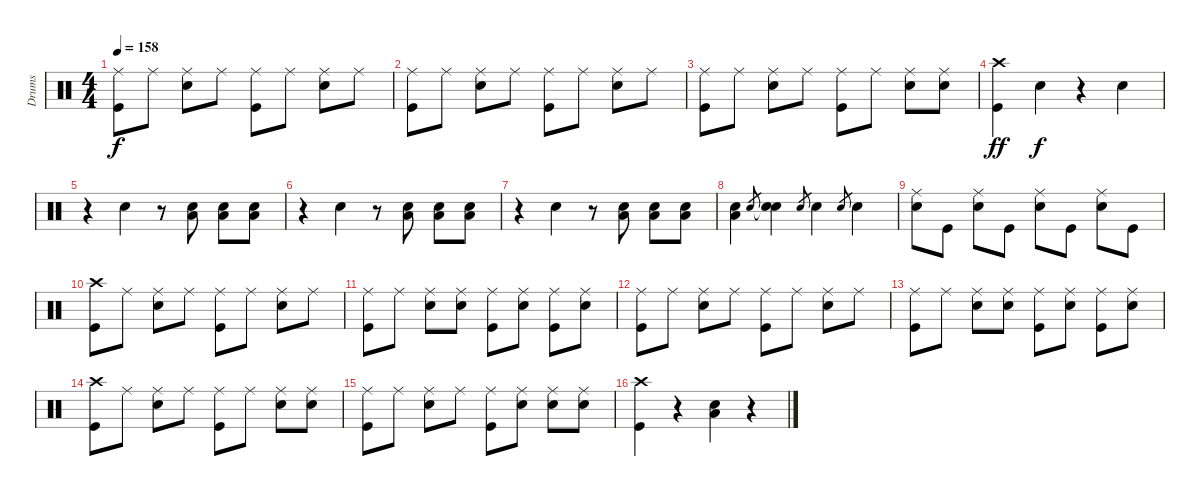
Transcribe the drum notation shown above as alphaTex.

\track ("Drums" "Drums") {instrument percussion}
\staff {score}
\articulation defaults
\ts (4 4)
\tempo 158
\clef neutral
\ks c
("Ride (middle)" "Kick (hit)").8{dy f} "Ride (middle)".8 ("Ride (middle)" "Snare (hit) 2").8 "Ride (middle)".8 ("Ride (middle)" "Kick (hit)").8 "Ride (middle)".8 ("Ride (middle)" "Snare (hit) 2").8 "Ride (middle)".8 |
("Ride (middle)" "Kick (hit)").8 "Ride (middle)".8 ("Ride (middle)" "Snare (hit) 2").8 "Ride (middle)".8 ("Ride (middle)" "Kick (hit)").8 "Ride (middle)".8 ("Ride (middle)" "Snare (hit) 2").8 "Ride (middle)".8 |
("Ride (middle)" "Kick (hit)").8 "Ride (middle)".8 ("Ride (middle)" "Snare (hit) 2").8 "Ride (middle)".8 ("Ride (middle)" "Kick (hit)").8 "Ride (middle)".8 ("Ride (middle)" "Snare (hit) 2").8 ("Ride (middle)" "Snare (hit) 2").8 |
("Crash high (hit)" "Kick (hit)").4{dy ff} "Snare (hit) 2".4{dy f} r.4 "Snare (hit) 2".4 |
r.4 "Snare (hit) 2".4 r.8 ("Snare (hit) 2" "Low Floor Tom (hit)").8 ("Snare (hit) 2" "Low Floor Tom (hit)").8 ("Snare (hit) 2" "Low Floor Tom (hit)").8 |
r.4 "Snare (hit) 2".4 r.8 ("Snare (hit) 2" "Low Floor Tom (hit)").8 ("Snare (hit) 2" "Low Floor Tom (hit)").8 ("Snare (hit) 2" "Low Floor Tom (hit)").8 |
r.4 "Snare (hit) 2".4 r.8 ("Snare (hit) 2" "Low Floor Tom (hit)").8 ("Snare (hit) 2" "Low Floor Tom (hit)").8 ("Snare (hit) 2" "Low Floor Tom (hit)").8 |
("Snare (hit) 2" "Low Floor Tom (hit)").4 "Snare (hit) 2".8{gr} ("Snare (hit)"{t} "Snare (hit) 2").4 "Snare (hit) 2".8{gr} "Snare (hit) 2".4 "Snare (hit) 2".8{gr} "Snare (hit) 2".4 |
("Ride (middle)" "Snare (hit) 2").8 "Kick (hit)".8 ("Ride (middle)" "Snare (hit) 2").8 "Kick (hit)".8 ("Ride (middle)" "Snare (hit) 2").8 "Kick (hit)".8 ("Ride (middle)" "Snare (hit) 2").8 "Kick (hit)".8 |
("Crash high (hit)" "Kick (hit)").8 "Ride (middle)".8 ("Ride (middle)" "Snare (hit) 2").8 "Ride (middle)".8 ("Ride (middle)" "Kick (hit)").8 "Ride (middle)".8 ("Ride (middle)" "Snare (hit) 2").8 "Ride (middle)".8 |
("Ride (middle)" "Kick (hit)").8 "Ride (middle)".8 ("Ride (middle)" "Snare (hit) 2").8 ("Ride (middle)" "Snare (hit) 2").8 ("Ride (middle)" "Kick (hit)").8 ("Ride (middle)" "Snare (hit) 2").8 ("Ride (middle)" "Kick (hit)").8 ("Ride (middle)" "Snare (hit) 2").8 |
("Ride (middle)" "Kick (hit)").8 "Ride (middle)".8 ("Ride (middle)" "Snare (hit) 2").8 "Ride (middle)".8 ("Ride (middle)" "Kick (hit)").8 "Ride (middle)".8 ("Ride (middle)" "Snare (hit) 2").8 "Ride (middle)".8 |
("Ride (middle)" "Kick (hit)").8 "Ride (middle)".8 ("Ride (middle)" "Snare (hit) 2").8 ("Ride (middle)" "Snare (hit) 2").8 ("Ride (middle)" "Kick (hit)").8 ("Ride (middle)" "Snare (hit) 2").8 ("Ride (middle)" "Kick (hit)").8 ("Ride (middle)" "Snare (hit) 2").8 |
("Crash high (hit)" "Kick (hit)").8 "Ride (middle)".8 ("Ride (middle)" "Snare (hit) 2").8 "Ride (middle)".8 ("Ride (middle)" "Kick (hit)").8 "Ride (middle)".8 ("Ride (middle)" "Snare (hit) 2").8 ("Ride (middle)" "Snare (hit) 2").8 |
("Ride (middle)" "Kick (hit)").8 "Ride (middle)".8 ("Ride (middle)" "Snare (hit) 2").8 "Ride (middle)".8 ("Ride (middle)" "Kick (hit)").8 ("Ride (middle)" "Snare (hit) 2").8 ("Ride (middle)" "Snare (hit) 2").8 ("Ride (middle)" "Snare (hit) 2").8 |
("Crash high (hit)" "Kick (hit)").4 r.4 ("Snare (hit) 2" "Low Floor Tom (hit)").4 r.4
